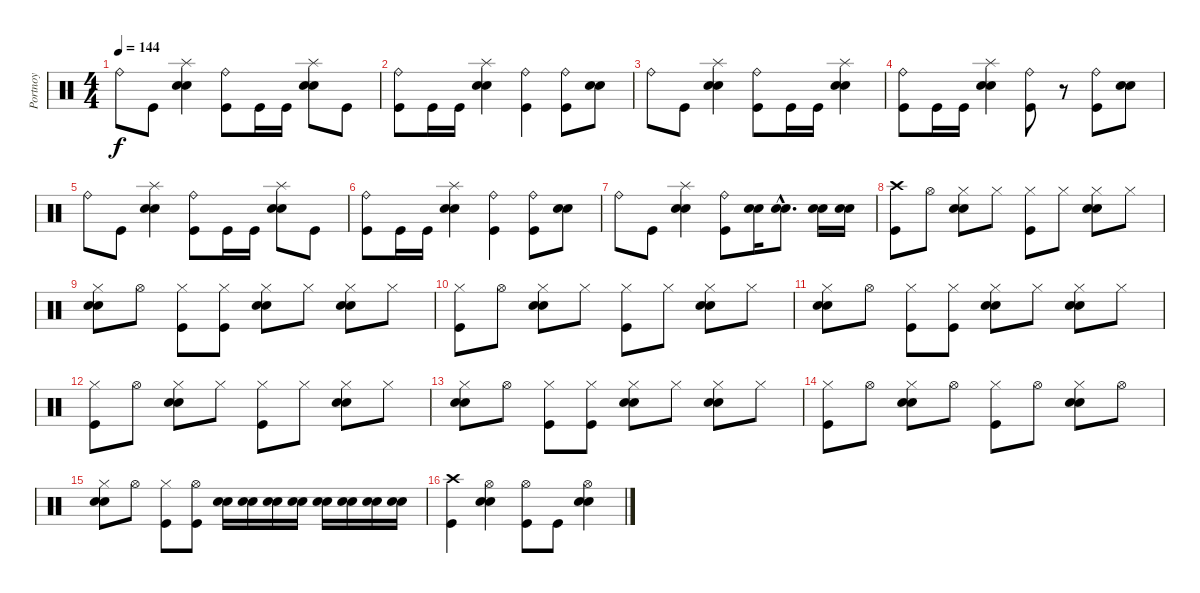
\track ("Portnoy" "Portnoy") {instrument percussion}
\staff {score}
\articulation defaults
\ts (4 4)
\tempo 144
\clef neutral
\ks c "Ride (bell)".8{dy f} "Kick (hit)".8
("Splash (hit)" "Snare (hit) 2" "Electric Snare (hit)").4 ("Ride (bell)" "Kick (hit)").8 "Kick (hit)".16 "Kick (hit)".16 ("Splash (hit)" "Snare (hit) 2" "Electric Snare (hit)").8 "Kick (hit)".8 |
("Ride (bell)" "Kick (hit)").8 "Kick (hit)".16 "Kick (hit)".16 ("Splash (hit)" "Snare (hit) 2" "Electric Snare (hit)").4 ("Ride (bell)" "Kick (hit)").4 ("Ride (bell)" "Kick (hit)").8 ("Snare (hit) 2" "Electric Snare (hit)").8 |
"Ride (bell)".8 "Kick (hit)".8 ("Splash (hit)" "Snare (hit) 2" "Electric Snare (hit)").4 ("Ride (bell)" "Kick (hit)").8 "Kick (hit)".16 "Kick (hit)".16 ("Splash (hit)" "Snare (hit) 2" "Electric Snare (hit)").4 |
("Ride (bell)" "Kick (hit)").8 "Kick (hit)".16 "Kick (hit)".16 ("Splash (hit)" "Snare (hit) 2" "Electric Snare (hit)").4 ("Ride (bell)" "Kick (hit)").8 r.8 ("Ride (bell)" "Kick (hit)").8 ("Snare (hit) 2" "Electric Snare (hit)").8 |
"Ride (bell)".8 "Kick (hit)".8 ("Splash (hit)" "Snare (hit) 2" "Electric Snare (hit)").4 ("Ride (bell)" "Kick (hit)").8 "Kick (hit)".16 "Kick (hit)".16 ("Splash (hit)" "Snare (hit) 2" "Electric Snare (hit)").8 "Kick (hit)".8 |
("Ride (bell)" "Kick (hit)").8 "Kick (hit)".16 "Kick (hit)".16 ("Splash (hit)" "Snare (hit) 2" "Electric Snare (hit)").4 ("Ride (bell)" "Kick (hit)").4 ("Ride (bell)" "Kick (hit)").8 ("Snare (hit) 2" "Electric Snare (hit)").8 |
"Ride (bell)".8 "Kick (hit)".8 ("Splash (hit)" "Snare (hit) 2" "Electric Snare (hit)").4 ("Ride (bell)" "Kick (hit)").8 ("Snare (hit) 2" "Electric Snare (hit)").16 ("Snare (hit) 2"{hac} "Electric Snare (hit)"{hac}).8{d} ("Snare (hit) 2" "Electric Snare (hit)").16 ("Snare (hit) 2" "Electric Snare (hit)").16 |
("Crash high (hit)" "Kick (hit)").8 "Hi-Hat (open)".8 ("Hi-Hat (closed)" "Snare (hit) 2" "Electric Snare (hit)").8 "Hi-Hat (closed)".8 ("Hi-Hat (closed)" "Kick (hit)").8 "Hi-Hat (closed)".8 ("Hi-Hat (closed)" "Snare (hit) 2" "Electric Snare (hit)").8 "Hi-Hat (closed)".8 |
("Hi-Hat (closed)" "Snare (hit) 2" "Electric Snare (hit)").8 "Hi-Hat (open)".8 ("Hi-Hat (closed)" "Kick (hit)").8 ("Hi-Hat (closed)" "Kick (hit)").8 ("Hi-Hat (closed)" "Snare (hit) 2" "Electric Snare (hit)").8 "Hi-Hat (closed)".8 ("Hi-Hat (closed)" "Snare (hit) 2" "Electric Snare (hit)").8 "Hi-Hat (closed)".8 |
("Hi-Hat (closed)" "Kick (hit)").8 "Hi-Hat (open)".8 ("Hi-Hat (closed)" "Snare (hit) 2" "Electric Snare (hit)").8 "Hi-Hat (closed)".8 ("Hi-Hat (closed)" "Kick (hit)").8 "Hi-Hat (closed)".8 ("Hi-Hat (closed)" "Snare (hit) 2" "Electric Snare (hit)").8 "Hi-Hat (closed)".8 |
("Hi-Hat (closed)" "Snare (hit) 2" "Electric Snare (hit)").8 "Hi-Hat (open)".8 ("Hi-Hat (closed)" "Kick (hit)").8 ("Hi-Hat (closed)" "Kick (hit)").8 ("Hi-Hat (closed)" "Snare (hit) 2" "Electric Snare (hit)").8 "Hi-Hat (closed)".8 ("Hi-Hat (closed)" "Snare (hit) 2" "Electric Snare (hit)").8 "Hi-Hat (closed)".8 |
("Hi-Hat (closed)" "Kick (hit)").8 "Hi-Hat (open)".8 ("Hi-Hat (closed)" "Snare (hit) 2" "Electric Snare (hit)").8 "Hi-Hat (closed)".8 ("Hi-Hat (closed)" "Kick (hit)").8 "Hi-Hat (closed)".8 ("Hi-Hat (closed)" "Snare (hit) 2" "Electric Snare (hit)").8 "Hi-Hat (closed)".8 |
("Hi-Hat (closed)" "Snare (hit) 2" "Electric Snare (hit)").8 "Hi-Hat (open)".8 ("Hi-Hat (closed)" "Kick (hit)").8 ("Hi-Hat (closed)" "Kick (hit)").8 ("Hi-Hat (closed)" "Snare (hit) 2" "Electric Snare (hit)").8 "Hi-Hat (closed)".8 ("Hi-Hat (closed)" "Snare (hit) 2" "Electric Snare (hit)").8 "Hi-Hat (closed)".8 |
("Hi-Hat (closed)" "Kick (hit)").8 "Hi-Hat (open)".8 ("Hi-Hat (closed)" "Snare (hit) 2" "Electric Snare (hit)").8 "Hi-Hat (open)".8 ("Hi-Hat (closed)" "Kick (hit)").8 "Hi-Hat (open)".8 ("Hi-Hat (closed)" "Snare (hit) 2" "Electric Snare (hit)").8 "Hi-Hat (open)".8 |
("Hi-Hat (closed)" "Snare (hit) 2" "Electric Snare (hit)").8 "Hi-Hat (open)".8 ("Hi-Hat (closed)" "Kick (hit)").8 ("Hi-Hat (open)" "Kick (hit)").8 ("Snare (hit) 2" "Electric Snare (hit)").16 ("Snare (hit) 2" "Electric Snare (hit)").16 ("Snare (hit) 2" "Electric Snare (hit)").16 ("Snare (hit) 2" "Electric Snare (hit)").16 ("Snare (hit) 2" "Electric Snare (hit)").16 ("Snare (hit) 2" "Electric Snare (hit)").16 ("Snare (hit) 2" "Electric Snare (hit)").16 ("Snare (hit) 2" "Electric Snare (hit)").16 |
("Crash high (hit)" "Kick (hit)").4 ("Hi-Hat (open)" "Snare (hit) 2" "Electric Snare (hit)").4 ("Hi-Hat (open)" "Kick (hit)").8 "Kick (hit)".8 ("Hi-Hat (open)" "Snare (hit) 2" "Electric Snare (hit)").4
